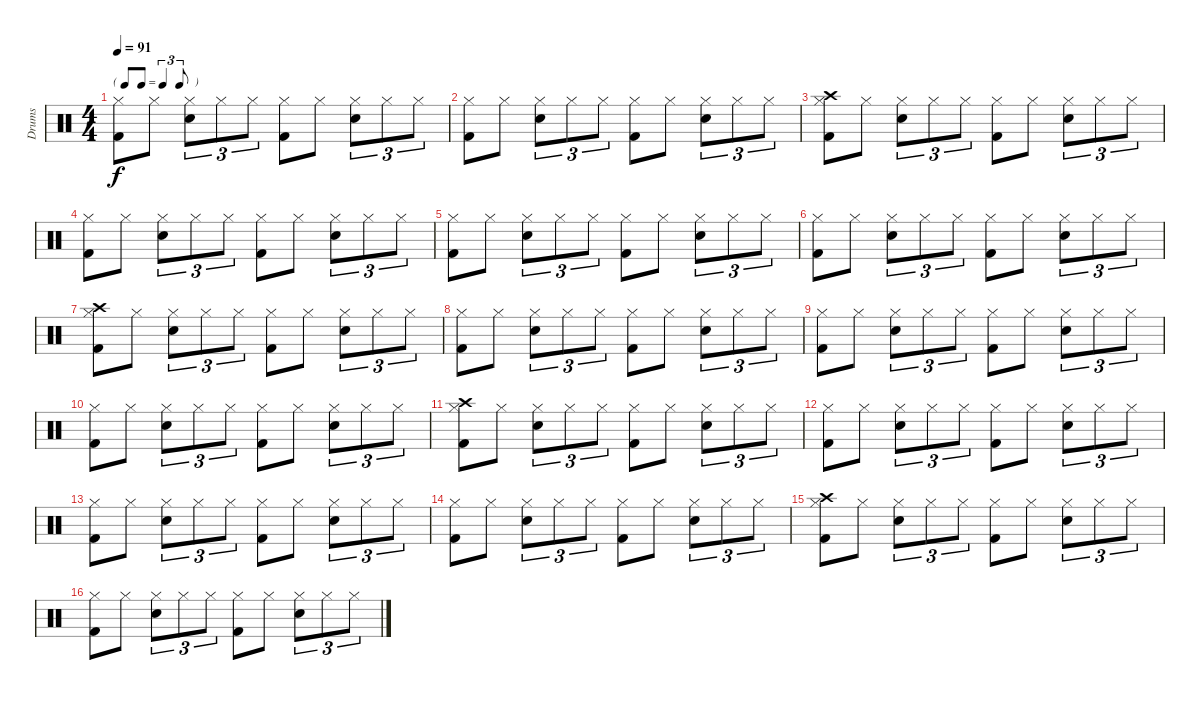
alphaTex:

\track ("Drums" "Drums") {instrument percussion}
\staff {score}
\articulation defaults
\ts (4 4)
\tf triplet8th
\tempo 91
\clef neutral
\ks c
("Hi-Hat (closed)" "Kick (hit) 2").8{dy f} "Hi-Hat (closed)".8 ("Hi-Hat (closed)" "Snare (hit) 2").8{tu (3 2)} "Hi-Hat (closed)".8{tu (3 2)} "Hi-Hat (closed)".8{tu (3 2)} ("Hi-Hat (closed)" "Kick (hit) 2").8 "Hi-Hat (closed)".8 ("Hi-Hat (closed)" "Snare (hit) 2").8{tu (3 2)} "Hi-Hat (closed)".8{tu (3 2)} "Hi-Hat (closed)".8{tu (3 2)} |
("Hi-Hat (closed)" "Kick (hit) 2").8 "Hi-Hat (closed)".8 ("Hi-Hat (closed)" "Snare (hit) 2").8{tu (3 2)} "Hi-Hat (closed)".8{tu (3 2)} "Hi-Hat (closed)".8{tu (3 2)} ("Hi-Hat (closed)" "Kick (hit) 2").8 "Hi-Hat (closed)".8 ("Hi-Hat (closed)" "Snare (hit) 2").8{tu (3 2)} "Hi-Hat (closed)".8{tu (3 2)} "Hi-Hat (closed)".8{tu (3 2)} |
("Crash high (hit)" "Hi-Hat (closed)" "Kick (hit) 2").8 "Hi-Hat (closed)".8 ("Hi-Hat (closed)" "Snare (hit) 2").8{tu (3 2)} "Hi-Hat (closed)".8{tu (3 2)} "Hi-Hat (closed)".8{tu (3 2)} ("Hi-Hat (closed)" "Kick (hit) 2").8 "Hi-Hat (closed)".8 ("Hi-Hat (closed)" "Snare (hit) 2").8{tu (3 2)} "Hi-Hat (closed)".8{tu (3 2)} "Hi-Hat (closed)".8{tu (3 2)} |
("Hi-Hat (closed)" "Kick (hit) 2").8 "Hi-Hat (closed)".8 ("Hi-Hat (closed)" "Snare (hit) 2").8{tu (3 2)} "Hi-Hat (closed)".8{tu (3 2)} "Hi-Hat (closed)".8{tu (3 2)} ("Hi-Hat (closed)" "Kick (hit) 2").8 "Hi-Hat (closed)".8 ("Hi-Hat (closed)" "Snare (hit) 2").8{tu (3 2)} "Hi-Hat (closed)".8{tu (3 2)} "Hi-Hat (closed)".8{tu (3 2)} |
("Hi-Hat (closed)" "Kick (hit) 2").8 "Hi-Hat (closed)".8 ("Hi-Hat (closed)" "Snare (hit) 2").8{tu (3 2)} "Hi-Hat (closed)".8{tu (3 2)} "Hi-Hat (closed)".8{tu (3 2)} ("Hi-Hat (closed)" "Kick (hit) 2").8 "Hi-Hat (closed)".8 ("Hi-Hat (closed)" "Snare (hit) 2").8{tu (3 2)} "Hi-Hat (closed)".8{tu (3 2)} "Hi-Hat (closed)".8{tu (3 2)} |
("Hi-Hat (closed)" "Kick (hit) 2").8 "Hi-Hat (closed)".8 ("Hi-Hat (closed)" "Snare (hit) 2").8{tu (3 2)} "Hi-Hat (closed)".8{tu (3 2)} "Hi-Hat (closed)".8{tu (3 2)} ("Hi-Hat (closed)" "Kick (hit) 2").8 "Hi-Hat (closed)".8 ("Hi-Hat (closed)" "Snare (hit) 2").8{tu (3 2)} "Hi-Hat (closed)".8{tu (3 2)} "Hi-Hat (closed)".8{tu (3 2)} |
("Crash high (hit)" "Hi-Hat (closed)" "Kick (hit) 2").8 "Hi-Hat (closed)".8 ("Hi-Hat (closed)" "Snare (hit) 2").8{tu (3 2)} "Hi-Hat (closed)".8{tu (3 2)} "Hi-Hat (closed)".8{tu (3 2)} ("Hi-Hat (closed)" "Kick (hit) 2").8 "Hi-Hat (closed)".8 ("Hi-Hat (closed)" "Snare (hit) 2").8{tu (3 2)} "Hi-Hat (closed)".8{tu (3 2)} "Hi-Hat (closed)".8{tu (3 2)} |
("Hi-Hat (closed)" "Kick (hit) 2").8 "Hi-Hat (closed)".8 ("Hi-Hat (closed)" "Snare (hit) 2").8{tu (3 2)} "Hi-Hat (closed)".8{tu (3 2)} "Hi-Hat (closed)".8{tu (3 2)} ("Hi-Hat (closed)" "Kick (hit) 2").8 "Hi-Hat (closed)".8 ("Hi-Hat (closed)" "Snare (hit) 2").8{tu (3 2)} "Hi-Hat (closed)".8{tu (3 2)} "Hi-Hat (closed)".8{tu (3 2)} |
("Hi-Hat (closed)" "Kick (hit) 2").8 "Hi-Hat (closed)".8 ("Hi-Hat (closed)" "Snare (hit) 2").8{tu (3 2)} "Hi-Hat (closed)".8{tu (3 2)} "Hi-Hat (closed)".8{tu (3 2)} ("Hi-Hat (closed)" "Kick (hit) 2").8 "Hi-Hat (closed)".8 ("Hi-Hat (closed)" "Snare (hit) 2").8{tu (3 2)} "Hi-Hat (closed)".8{tu (3 2)} "Hi-Hat (closed)".8{tu (3 2)} |
("Hi-Hat (closed)" "Kick (hit) 2").8 "Hi-Hat (closed)".8 ("Hi-Hat (closed)" "Snare (hit) 2").8{tu (3 2)} "Hi-Hat (closed)".8{tu (3 2)} "Hi-Hat (closed)".8{tu (3 2)} ("Hi-Hat (closed)" "Kick (hit) 2").8 "Hi-Hat (closed)".8 ("Hi-Hat (closed)" "Snare (hit) 2").8{tu (3 2)} "Hi-Hat (closed)".8{tu (3 2)} "Hi-Hat (closed)".8{tu (3 2)} |
("Crash high (hit)" "Hi-Hat (closed)" "Kick (hit) 2").8 "Hi-Hat (closed)".8 ("Hi-Hat (closed)" "Snare (hit) 2").8{tu (3 2)} "Hi-Hat (closed)".8{tu (3 2)} "Hi-Hat (closed)".8{tu (3 2)} ("Hi-Hat (closed)" "Kick (hit) 2").8 "Hi-Hat (closed)".8 ("Hi-Hat (closed)" "Snare (hit) 2").8{tu (3 2)} "Hi-Hat (closed)".8{tu (3 2)} "Hi-Hat (closed)".8{tu (3 2)} |
("Hi-Hat (closed)" "Kick (hit) 2").8 "Hi-Hat (closed)".8 ("Hi-Hat (closed)" "Snare (hit) 2").8{tu (3 2)} "Hi-Hat (closed)".8{tu (3 2)} "Hi-Hat (closed)".8{tu (3 2)} ("Hi-Hat (closed)" "Kick (hit) 2").8 "Hi-Hat (closed)".8 ("Hi-Hat (closed)" "Snare (hit) 2").8{tu (3 2)} "Hi-Hat (closed)".8{tu (3 2)} "Hi-Hat (closed)".8{tu (3 2)} |
("Hi-Hat (closed)" "Kick (hit) 2").8 "Hi-Hat (closed)".8 ("Hi-Hat (closed)" "Snare (hit) 2").8{tu (3 2)} "Hi-Hat (closed)".8{tu (3 2)} "Hi-Hat (closed)".8{tu (3 2)} ("Hi-Hat (closed)" "Kick (hit) 2").8 "Hi-Hat (closed)".8 ("Hi-Hat (closed)" "Snare (hit) 2").8{tu (3 2)} "Hi-Hat (closed)".8{tu (3 2)} "Hi-Hat (closed)".8{tu (3 2)} |
("Hi-Hat (closed)" "Kick (hit) 2").8 "Hi-Hat (closed)".8 ("Hi-Hat (closed)" "Snare (hit) 2").8{tu (3 2)} "Hi-Hat (closed)".8{tu (3 2)} "Hi-Hat (closed)".8{tu (3 2)} ("Hi-Hat (closed)" "Kick (hit) 2").8 "Hi-Hat (closed)".8 ("Hi-Hat (closed)" "Snare (hit) 2").8{tu (3 2)} "Hi-Hat (closed)".8{tu (3 2)} "Hi-Hat (closed)".8{tu (3 2)} |
("Crash high (hit)" "Hi-Hat (closed)" "Kick (hit) 2").8 "Hi-Hat (closed)".8 ("Hi-Hat (closed)" "Snare (hit) 2").8{tu (3 2)} "Hi-Hat (closed)".8{tu (3 2)} "Hi-Hat (closed)".8{tu (3 2)} ("Hi-Hat (closed)" "Kick (hit) 2").8 "Hi-Hat (closed)".8 ("Hi-Hat (closed)" "Snare (hit) 2").8{tu (3 2)} "Hi-Hat (closed)".8{tu (3 2)} "Hi-Hat (closed)".8{tu (3 2)} |
("Hi-Hat (closed)" "Kick (hit) 2").8 "Hi-Hat (closed)".8 ("Hi-Hat (closed)" "Snare (hit) 2").8{tu (3 2)} "Hi-Hat (closed)".8{tu (3 2)} "Hi-Hat (closed)".8{tu (3 2)} ("Hi-Hat (closed)" "Kick (hit) 2").8 "Hi-Hat (closed)".8 ("Hi-Hat (closed)" "Snare (hit) 2").8{tu (3 2)} "Hi-Hat (closed)".8{tu (3 2)} "Hi-Hat (closed)".8{tu (3 2)}
